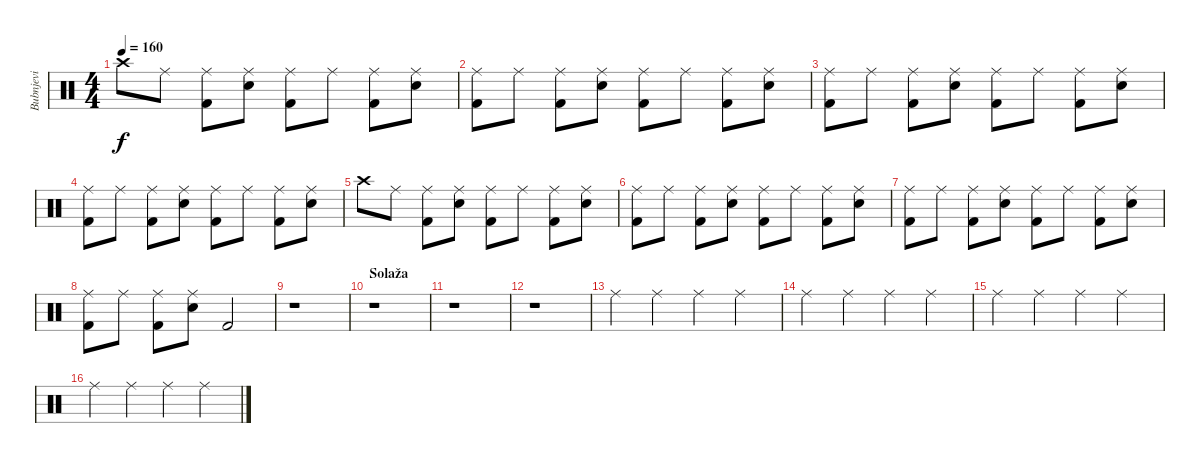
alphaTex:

\track ("Bubnjevi" "Bubnjevi") {instrument percussion}
\staff {score}
\articulation defaults
\ts (4 4)
\tempo 160
\clef neutral
\ks c "Crash high (hit)".8{dy f} "Ride (middle)".8
("Ride (middle)" "Kick (hit) 2").8 ("Ride (middle)" "Snare (hit) 2").8 ("Ride (middle)" "Kick (hit) 2").8 "Ride (middle)".8 ("Ride (middle)" "Kick (hit) 2").8 ("Ride (middle)" "Snare (hit) 2").8 |
("Ride (middle)" "Kick (hit) 2").8 "Ride (middle)".8 ("Ride (middle)" "Kick (hit) 2").8 ("Ride (middle)" "Snare (hit) 2").8 ("Ride (middle)" "Kick (hit) 2").8 "Ride (middle)".8 ("Ride (middle)" "Kick (hit) 2").8 ("Ride (middle)" "Snare (hit) 2").8 |
("Ride (middle)" "Kick (hit) 2").8 "Ride (middle)".8 ("Ride (middle)" "Kick (hit) 2").8 ("Ride (middle)" "Snare (hit) 2").8 ("Ride (middle)" "Kick (hit) 2").8 "Ride (middle)".8 ("Ride (middle)" "Kick (hit) 2").8 ("Ride (middle)" "Snare (hit) 2").8 |
("Ride (middle)" "Kick (hit) 2").8 "Ride (middle)".8 ("Ride (middle)" "Kick (hit) 2").8 ("Ride (middle)" "Snare (hit) 2").8 ("Ride (middle)" "Kick (hit) 2").8 "Ride (middle)".8 ("Ride (middle)" "Kick (hit) 2").8 ("Ride (middle)" "Snare (hit) 2").8 |
"Crash high (hit)".8 "Ride (middle)".8 ("Ride (middle)" "Kick (hit) 2").8 ("Ride (middle)" "Snare (hit) 2").8 ("Ride (middle)" "Kick (hit) 2").8 "Ride (middle)".8 ("Ride (middle)" "Kick (hit) 2").8 ("Ride (middle)" "Snare (hit) 2").8 |
("Ride (middle)" "Kick (hit) 2").8 "Ride (middle)".8 ("Ride (middle)" "Kick (hit) 2").8 ("Ride (middle)" "Snare (hit) 2").8 ("Ride (middle)" "Kick (hit) 2").8 "Ride (middle)".8 ("Ride (middle)" "Kick (hit) 2").8 ("Ride (middle)" "Snare (hit) 2").8 |
("Ride (middle)" "Kick (hit) 2").8 "Ride (middle)".8 ("Ride (middle)" "Kick (hit) 2").8 ("Ride (middle)" "Snare (hit) 2").8 ("Ride (middle)" "Kick (hit) 2").8 "Ride (middle)".8 ("Ride (middle)" "Kick (hit) 2").8 ("Ride (middle)" "Snare (hit) 2").8 |
("Ride (middle)" "Kick (hit) 2").8 "Ride (middle)".8 ("Ride (middle)" "Kick (hit) 2").8 ("Ride (middle)" "Snare (hit) 2").8 "Kick (hit) 2".2 |
r.1 |
\section ("" "Solaža")
r.1 |
r.1 |
r.1 |
"Ride (middle)".4 "Ride (middle)".4 "Ride (middle)".4 "Ride (middle)".4 |
"Ride (middle)".4 "Ride (middle)".4 "Ride (middle)".4 "Ride (middle)".4 |
"Ride (middle)".4 "Ride (middle)".4 "Ride (middle)".4 "Ride (middle)".4 |
"Ride (middle)".4 "Ride (middle)".4 "Ride (middle)".4 "Ride (middle)".4
